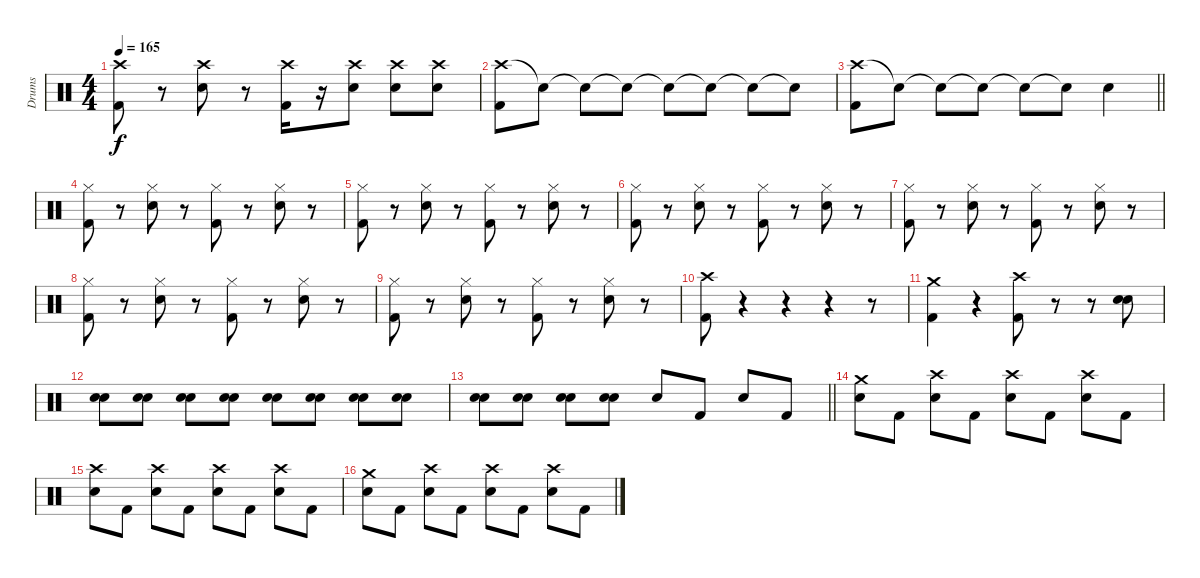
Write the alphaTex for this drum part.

\track ("Drums" "Drums") {instrument percussion}
\staff {score}
\articulation defaults
\ts (4 4)
\tempo 165
\clef neutral
\ks c
("Crash high (hit)" "Kick (hit) 2").8{dy f} r.8 ("Crash high (hit)" "Electric Snare (hit)").8 r.8 ("Crash high (hit)" "Kick (hit) 2").16 r.16 ("Crash high (hit)" "Electric Snare (hit)").8 ("Crash high (hit)" "Electric Snare (hit)").8 ("Crash high (hit)" "Electric Snare (hit)").8 |
("Crash high (hit)" "Kick (hit) 2").8 "Snare (hit)"{t}.8 "Snare (hit)"{t}.8 "Snare (hit)"{t}.8 "Snare (hit)"{t}.8 "Snare (hit)"{t}.8 "Snare (hit)"{t}.8 "Snare (hit)"{t}.8 |
\barLineRight lightlight
("Crash high (hit)" "Kick (hit) 2").8 "Snare (hit)"{t}.8 "Snare (hit)"{t}.8 "Snare (hit)"{t}.8 "Snare (hit)"{t}.8 "Snare (hit)"{t}.8 "Electric Snare (hit)".4 |
\section ("" "")
("Hi-Hat (closed)" "Kick (hit) 2").8 r.8 ("Hi-Hat (closed)" "Electric Snare (hit)").8 r.8 ("Hi-Hat (closed)" "Kick (hit) 2").8 r.8 ("Hi-Hat (closed)" "Electric Snare (hit)").8 r.8 |
("Hi-Hat (closed)" "Kick (hit) 2").8 r.8 ("Hi-Hat (closed)" "Electric Snare (hit)").8 r.8 ("Hi-Hat (closed)" "Kick (hit) 2").8 r.8 ("Hi-Hat (closed)" "Electric Snare (hit)").8 r.8 |
("Hi-Hat (closed)" "Kick (hit) 2").8 r.8 ("Hi-Hat (closed)" "Electric Snare (hit)").8 r.8 ("Hi-Hat (closed)" "Kick (hit) 2").8 r.8 ("Hi-Hat (closed)" "Electric Snare (hit)").8 r.8 |
("Hi-Hat (closed)" "Kick (hit) 2").8 r.8 ("Hi-Hat (closed)" "Electric Snare (hit)").8 r.8 ("Hi-Hat (closed)" "Kick (hit) 2").8 r.8 ("Hi-Hat (closed)" "Electric Snare (hit)").8 r.8 |
("Hi-Hat (closed)" "Kick (hit) 2").8 r.8 ("Hi-Hat (closed)" "Electric Snare (hit)").8 r.8 ("Hi-Hat (closed)" "Kick (hit) 2").8 r.8 ("Hi-Hat (closed)" "Electric Snare (hit)").8 r.8 |
("Hi-Hat (closed)" "Kick (hit) 2").8 r.8 ("Hi-Hat (closed)" "Electric Snare (hit)").8 r.8 ("Hi-Hat (closed)" "Kick (hit) 2").8 r.8 ("Hi-Hat (closed)" "Electric Snare (hit)").8 r.8 |
("Crash high (hit)" "Kick (hit) 2").8 r.4 r.4 r.4 r.8 |
("Crash medium (hit)" "Kick (hit) 2").4 r.4 ("Crash high (hit)" "Kick (hit) 2").8 r.8 r.8 ("Electric Snare (hit)" "Electric Snare (hit)").8{volume 6} |
("Electric Snare (hit)" "Electric Snare (hit)").8{volume 16} ("Electric Snare (hit)" "Electric Snare (hit)").8 ("Electric Snare (hit)" "Electric Snare (hit)").8 ("Electric Snare (hit)" "Electric Snare (hit)").8 ("Electric Snare (hit)" "Electric Snare (hit)").8 ("Electric Snare (hit)" "Electric Snare (hit)").8 ("Electric Snare (hit)" "Electric Snare (hit)").8 ("Electric Snare (hit)" "Electric Snare (hit)").8 |
\barLineRight lightlight
("Electric Snare (hit)" "Electric Snare (hit)").8 ("Electric Snare (hit)" "Electric Snare (hit)").8 ("Electric Snare (hit)" "Electric Snare (hit)").8 ("Electric Snare (hit)" "Electric Snare (hit)").8 "Electric Snare (hit)".8 "Kick (hit) 2".8 "Electric Snare (hit)".8 "Kick (hit) 2".8 |
\section ("" "")
("Crash medium (hit)" "Electric Snare (hit)").8 "Kick (hit) 2".8 ("Crash high (hit)" "Electric Snare (hit)").8 "Kick (hit) 2".8 ("Crash high (hit)" "Electric Snare (hit)").8 "Kick (hit) 2".8 ("Crash high (hit)" "Electric Snare (hit)").8 "Kick (hit) 2".8 |
("Crash high (hit)" "Electric Snare (hit)").8 "Kick (hit) 2".8 ("Crash high (hit)" "Electric Snare (hit)").8 "Kick (hit) 2".8 ("Crash high (hit)" "Electric Snare (hit)").8 "Kick (hit) 2".8 ("Crash high (hit)" "Electric Snare (hit)").8 "Kick (hit) 2".8 |
("Crash medium (hit)" "Electric Snare (hit)").8 "Kick (hit) 2".8 ("Crash high (hit)" "Electric Snare (hit)").8 "Kick (hit) 2".8 ("Crash high (hit)" "Electric Snare (hit)").8 "Kick (hit) 2".8 ("Crash high (hit)" "Electric Snare (hit)").8 "Kick (hit) 2".8
